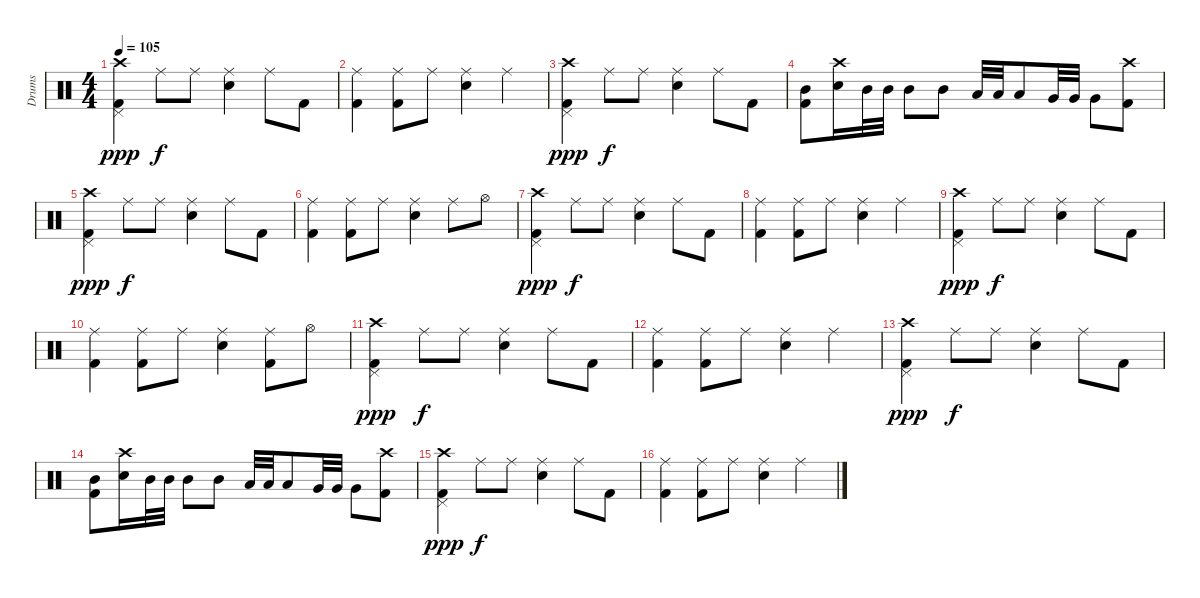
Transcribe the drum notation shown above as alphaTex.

\track ("Drums" "Drums") {instrument percussion}
\staff {score}
\articulation defaults
\ts (4 4)
\tempo 105
\clef neutral
\ks c
("Crash high (hit)" "Pedal Hi-Hat (hit)" "Kick (hit) 2").4{dy ppp} "Ride (middle)".8{dy f} "Ride (middle)".8 ("Ride (middle)" "Electric Snare (hit)").4 "Ride (middle)".8 "Kick (hit) 2".8 |
("Ride (middle)" "Kick (hit) 2").4 ("Ride (middle)" "Kick (hit) 2").8 "Ride (middle)".8 ("Ride (middle)" "Electric Snare (hit)").4 "Ride (middle)".4 |
("Crash high (hit)" "Pedal Hi-Hat (hit)" "Kick (hit) 2").4{dy ppp} "Ride (middle)".8{dy f} "Ride (middle)".8 ("Ride (middle)" "Electric Snare (hit)").4 "Ride (middle)".8 "Kick (hit) 2".8 |
("Mid Tom (hit)" "Kick (hit) 2").8 ("Crash high (hit)" "Electric Snare (hit)").16 "Mid Tom (hit)".32 "Mid Tom (hit)".32 "Mid Tom (hit)".8 "Mid Tom (hit)".8 "Low Tom (hit)".32 "Low Tom (hit)".32 "Low Tom (hit)".8 "Very Low Tom (hit)".32 "Very Low Tom (hit)".32 "Very Low Tom (hit)".8 ("Crash high (hit)" "Kick (hit) 2").8 |
("Crash high (hit)" "Pedal Hi-Hat (hit)" "Kick (hit) 2").4{dy ppp} "Ride (middle)".8{dy f} "Ride (middle)".8 ("Ride (middle)" "Electric Snare (hit)").4 "Ride (middle)".8 "Kick (hit) 2".8 |
("Ride (middle)" "Kick (hit) 2").4 ("Ride (middle)" "Kick (hit) 2").8 "Ride (middle)".8 ("Ride (middle)" "Electric Snare (hit)").4 "Ride (middle)".8 "Hi-Hat (open)".8 |
("Crash high (hit)" "Pedal Hi-Hat (hit)" "Kick (hit) 2").4{dy ppp} "Ride (middle)".8{dy f} "Ride (middle)".8 ("Ride (middle)" "Electric Snare (hit)").4 "Ride (middle)".8 "Kick (hit) 2".8 |
("Ride (middle)" "Kick (hit) 2").4 ("Ride (middle)" "Kick (hit) 2").8 "Ride (middle)".8 ("Ride (middle)" "Electric Snare (hit)").4 "Ride (middle)".4 |
("Crash high (hit)" "Pedal Hi-Hat (hit)" "Kick (hit) 2").4{dy ppp} "Ride (middle)".8{dy f} "Ride (middle)".8 ("Ride (middle)" "Electric Snare (hit)").4 "Ride (middle)".8 "Kick (hit) 2".8 |
("Ride (middle)" "Kick (hit) 2").4 ("Ride (middle)" "Kick (hit) 2").8 "Ride (middle)".8 ("Ride (middle)" "Electric Snare (hit)").4 ("Ride (middle)" "Kick (hit) 2").8 "Hi-Hat (open)".8 |
("Crash high (hit)" "Pedal Hi-Hat (hit)" "Kick (hit) 2").4{dy ppp} "Ride (middle)".8{dy f} "Ride (middle)".8 ("Ride (middle)" "Electric Snare (hit)").4 "Ride (middle)".8 "Kick (hit) 2".8 |
("Ride (middle)" "Kick (hit) 2").4 ("Ride (middle)" "Kick (hit) 2").8 "Ride (middle)".8 ("Ride (middle)" "Electric Snare (hit)").4 "Ride (middle)".4 |
("Crash high (hit)" "Pedal Hi-Hat (hit)" "Kick (hit) 2").4{dy ppp} "Ride (middle)".8{dy f} "Ride (middle)".8 ("Ride (middle)" "Electric Snare (hit)").4 "Ride (middle)".8 "Kick (hit) 2".8 |
("Mid Tom (hit)" "Kick (hit) 2").8 ("Crash high (hit)" "Electric Snare (hit)").16 "Mid Tom (hit)".32 "Mid Tom (hit)".32 "Mid Tom (hit)".8 "Mid Tom (hit)".8 "Low Tom (hit)".32 "Low Tom (hit)".32 "Low Tom (hit)".8 "Very Low Tom (hit)".32 "Very Low Tom (hit)".32 "Very Low Tom (hit)".8 ("Crash high (hit)" "Kick (hit) 2").8 |
("Crash high (hit)" "Pedal Hi-Hat (hit)" "Kick (hit) 2").4{dy ppp} "Ride (middle)".8{dy f} "Ride (middle)".8 ("Ride (middle)" "Electric Snare (hit)").4 "Ride (middle)".8 "Kick (hit) 2".8 |
("Ride (middle)" "Kick (hit) 2").4 ("Ride (middle)" "Kick (hit) 2").8 "Ride (middle)".8 ("Ride (middle)" "Electric Snare (hit)").4 "Ride (middle)".4
